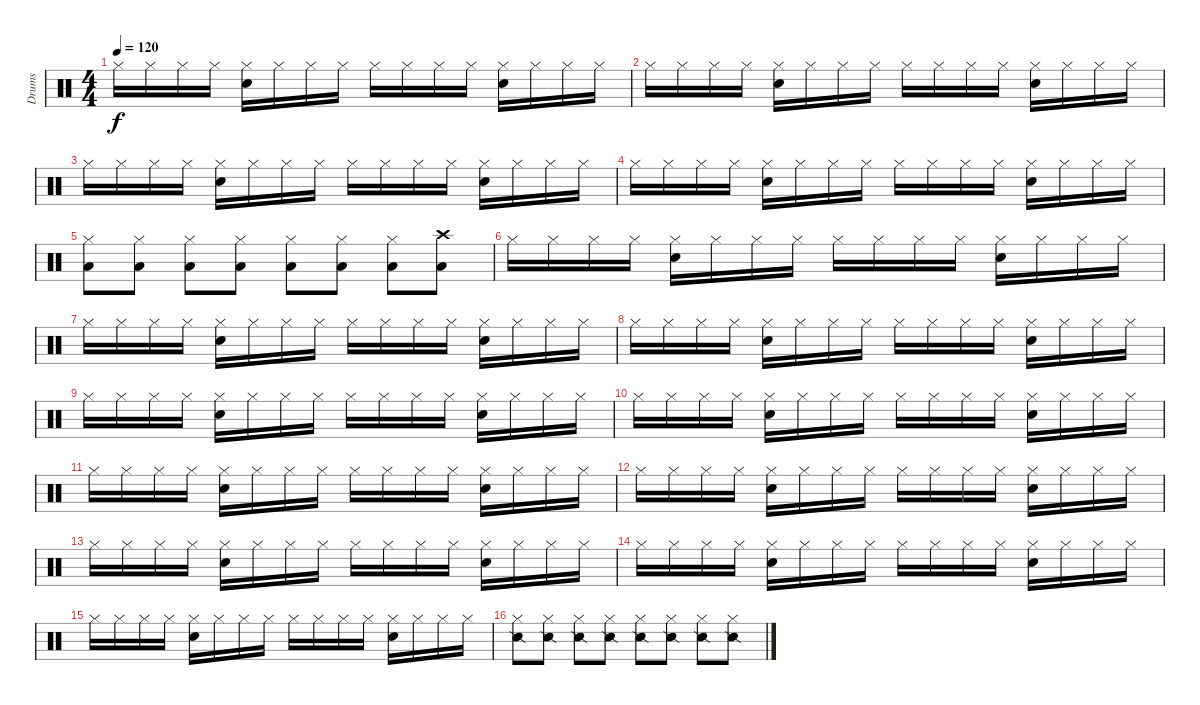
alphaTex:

\track ("Drums" "Drums") {instrument percussion}
\staff {score}
\articulation defaults
\ts (4 4)
\tempo 120
\clef neutral
\ks c "Hi-Hat (closed)".16{dy f} "Hi-Hat (closed)".16 "Hi-Hat (closed)".16 "Hi-Hat (closed)".16
("Hi-Hat (closed)" "Electric Snare (hit)").16 "Hi-Hat (closed)".16 "Hi-Hat (closed)".16 "Hi-Hat (closed)".16 "Hi-Hat (closed)".16 "Hi-Hat (closed)".16 "Hi-Hat (closed)".16 "Hi-Hat (closed)".16 ("Hi-Hat (closed)" "Electric Snare (hit)").16 "Hi-Hat (closed)".16 "Hi-Hat (closed)".16 "Hi-Hat (closed)".16 |
"Hi-Hat (closed)".16 "Hi-Hat (closed)".16 "Hi-Hat (closed)".16 "Hi-Hat (closed)".16 ("Hi-Hat (closed)" "Electric Snare (hit)").16 "Hi-Hat (closed)".16 "Hi-Hat (closed)".16 "Hi-Hat (closed)".16 "Hi-Hat (closed)".16 "Hi-Hat (closed)".16 "Hi-Hat (closed)".16 "Hi-Hat (closed)".16 ("Hi-Hat (closed)" "Electric Snare (hit)").16 "Hi-Hat (closed)".16 "Hi-Hat (closed)".16 "Hi-Hat (closed)".16 |
"Hi-Hat (closed)".16 "Hi-Hat (closed)".16 "Hi-Hat (closed)".16 "Hi-Hat (closed)".16 ("Hi-Hat (closed)" "Electric Snare (hit)").16 "Hi-Hat (closed)".16 "Hi-Hat (closed)".16 "Hi-Hat (closed)".16 "Hi-Hat (closed)".16 "Hi-Hat (closed)".16 "Hi-Hat (closed)".16 "Hi-Hat (closed)".16 ("Hi-Hat (closed)" "Electric Snare (hit)").16 "Hi-Hat (closed)".16 "Hi-Hat (closed)".16 "Hi-Hat (closed)".16 |
"Hi-Hat (closed)".16 "Hi-Hat (closed)".16 "Hi-Hat (closed)".16 "Hi-Hat (closed)".16 ("Hi-Hat (closed)" "Electric Snare (hit)").16 "Hi-Hat (closed)".16 "Hi-Hat (closed)".16 "Hi-Hat (closed)".16 "Hi-Hat (closed)".16 "Hi-Hat (closed)".16 "Hi-Hat (closed)".16 "Hi-Hat (closed)".16 ("Hi-Hat (closed)" "Electric Snare (hit)").16 "Hi-Hat (closed)".16 "Hi-Hat (closed)".16 "Hi-Hat (closed)".16 |
("Low Floor Tom (hit)" "Hi-Hat (closed)").8 ("Low Floor Tom (hit)" "Hi-Hat (closed)").8 ("Low Floor Tom (hit)" "Hi-Hat (closed)").8 ("Low Floor Tom (hit)" "Hi-Hat (closed)").8 ("Low Floor Tom (hit)" "Hi-Hat (closed)").8 ("Low Floor Tom (hit)" "Hi-Hat (closed)").8 ("Low Floor Tom (hit)" "Hi-Hat (closed)").8 ("Low Floor Tom (hit)" "Crash high (hit)").8 |
"Hi-Hat (closed)".16 "Hi-Hat (closed)".16 "Hi-Hat (closed)".16 "Hi-Hat (closed)".16 ("Hi-Hat (closed)" "Electric Snare (hit)").16 "Hi-Hat (closed)".16 "Hi-Hat (closed)".16 "Hi-Hat (closed)".16 "Hi-Hat (closed)".16 "Hi-Hat (closed)".16 "Hi-Hat (closed)".16 "Hi-Hat (closed)".16 ("Hi-Hat (closed)" "Electric Snare (hit)").16 "Hi-Hat (closed)".16 "Hi-Hat (closed)".16 "Hi-Hat (closed)".16 |
"Hi-Hat (closed)".16 "Hi-Hat (closed)".16 "Hi-Hat (closed)".16 "Hi-Hat (closed)".16 ("Hi-Hat (closed)" "Electric Snare (hit)").16 "Hi-Hat (closed)".16 "Hi-Hat (closed)".16 "Hi-Hat (closed)".16 "Hi-Hat (closed)".16 "Hi-Hat (closed)".16 "Hi-Hat (closed)".16 "Hi-Hat (closed)".16 ("Hi-Hat (closed)" "Electric Snare (hit)").16 "Hi-Hat (closed)".16 "Hi-Hat (closed)".16 "Hi-Hat (closed)".16 |
"Hi-Hat (closed)".16 "Hi-Hat (closed)".16 "Hi-Hat (closed)".16 "Hi-Hat (closed)".16 ("Hi-Hat (closed)" "Electric Snare (hit)").16 "Hi-Hat (closed)".16 "Hi-Hat (closed)".16 "Hi-Hat (closed)".16 "Hi-Hat (closed)".16 "Hi-Hat (closed)".16 "Hi-Hat (closed)".16 "Hi-Hat (closed)".16 ("Hi-Hat (closed)" "Electric Snare (hit)").16 "Hi-Hat (closed)".16 "Hi-Hat (closed)".16 "Hi-Hat (closed)".16 |
"Hi-Hat (closed)".16 "Hi-Hat (closed)".16 "Hi-Hat (closed)".16 "Hi-Hat (closed)".16 ("Hi-Hat (closed)" "Electric Snare (hit)").16 "Hi-Hat (closed)".16 "Hi-Hat (closed)".16 "Hi-Hat (closed)".16 "Hi-Hat (closed)".16 "Hi-Hat (closed)".16 "Hi-Hat (closed)".16 "Hi-Hat (closed)".16 ("Hi-Hat (closed)" "Electric Snare (hit)").16 "Hi-Hat (closed)".16 "Hi-Hat (closed)".16 "Hi-Hat (closed)".16 |
"Hi-Hat (closed)".16 "Hi-Hat (closed)".16 "Hi-Hat (closed)".16 "Hi-Hat (closed)".16 ("Hi-Hat (closed)" "Electric Snare (hit)").16 "Hi-Hat (closed)".16 "Hi-Hat (closed)".16 "Hi-Hat (closed)".16 "Hi-Hat (closed)".16 "Hi-Hat (closed)".16 "Hi-Hat (closed)".16 "Hi-Hat (closed)".16 ("Hi-Hat (closed)" "Electric Snare (hit)").16 "Hi-Hat (closed)".16 "Hi-Hat (closed)".16 "Hi-Hat (closed)".16 |
"Hi-Hat (closed)".16 "Hi-Hat (closed)".16 "Hi-Hat (closed)".16 "Hi-Hat (closed)".16 ("Hi-Hat (closed)" "Electric Snare (hit)").16 "Hi-Hat (closed)".16 "Hi-Hat (closed)".16 "Hi-Hat (closed)".16 "Hi-Hat (closed)".16 "Hi-Hat (closed)".16 "Hi-Hat (closed)".16 "Hi-Hat (closed)".16 ("Hi-Hat (closed)" "Electric Snare (hit)").16 "Hi-Hat (closed)".16 "Hi-Hat (closed)".16 "Hi-Hat (closed)".16 |
"Hi-Hat (closed)".16 "Hi-Hat (closed)".16 "Hi-Hat (closed)".16 "Hi-Hat (closed)".16 ("Hi-Hat (closed)" "Electric Snare (hit)").16 "Hi-Hat (closed)".16 "Hi-Hat (closed)".16 "Hi-Hat (closed)".16 "Hi-Hat (closed)".16 "Hi-Hat (closed)".16 "Hi-Hat (closed)".16 "Hi-Hat (closed)".16 ("Hi-Hat (closed)" "Electric Snare (hit)").16 "Hi-Hat (closed)".16 "Hi-Hat (closed)".16 "Hi-Hat (closed)".16 |
"Hi-Hat (closed)".16 "Hi-Hat (closed)".16 "Hi-Hat (closed)".16 "Hi-Hat (closed)".16 ("Hi-Hat (closed)" "Electric Snare (hit)").16 "Hi-Hat (closed)".16 "Hi-Hat (closed)".16 "Hi-Hat (closed)".16 "Hi-Hat (closed)".16 "Hi-Hat (closed)".16 "Hi-Hat (closed)".16 "Hi-Hat (closed)".16 ("Hi-Hat (closed)" "Electric Snare (hit)").16 "Hi-Hat (closed)".16 "Hi-Hat (closed)".16 "Hi-Hat (closed)".16 |
"Hi-Hat (closed)".16 "Hi-Hat (closed)".16 "Hi-Hat (closed)".16 "Hi-Hat (closed)".16 ("Hi-Hat (closed)" "Electric Snare (hit)").16 "Hi-Hat (closed)".16 "Hi-Hat (closed)".16 "Hi-Hat (closed)".16 "Hi-Hat (closed)".16 "Hi-Hat (closed)".16 "Hi-Hat (closed)".16 "Hi-Hat (closed)".16 ("Hi-Hat (closed)" "Electric Snare (hit)").16 "Hi-Hat (closed)".16 "Hi-Hat (closed)".16 "Hi-Hat (closed)".16 |
"Hi-Hat (closed)".16 "Hi-Hat (closed)".16 "Hi-Hat (closed)".16 "Hi-Hat (closed)".16 ("Hi-Hat (closed)" "Electric Snare (hit)").16 "Hi-Hat (closed)".16 "Hi-Hat (closed)".16 "Hi-Hat (closed)".16 "Hi-Hat (closed)".16 "Hi-Hat (closed)".16 "Hi-Hat (closed)".16 "Hi-Hat (closed)".16 ("Hi-Hat (closed)" "Electric Snare (hit)").16 "Hi-Hat (closed)".16 "Hi-Hat (closed)".16 "Hi-Hat (closed)".16 |
("Snare (side stick) 2" "Hi-Hat (closed)").8 ("Snare (side stick) 2" "Hi-Hat (closed)").8 ("Snare (side stick) 2" "Hi-Hat (closed)").8 ("Snare (side stick) 2" "Hi-Hat (closed)").8 ("Snare (side stick) 2" "Hi-Hat (closed)").8 ("Snare (side stick) 2" "Hi-Hat (closed)").8 ("Snare (side stick) 2" "Hi-Hat (closed)").8 ("Snare (side stick) 2" "Hi-Hat (closed)").8
